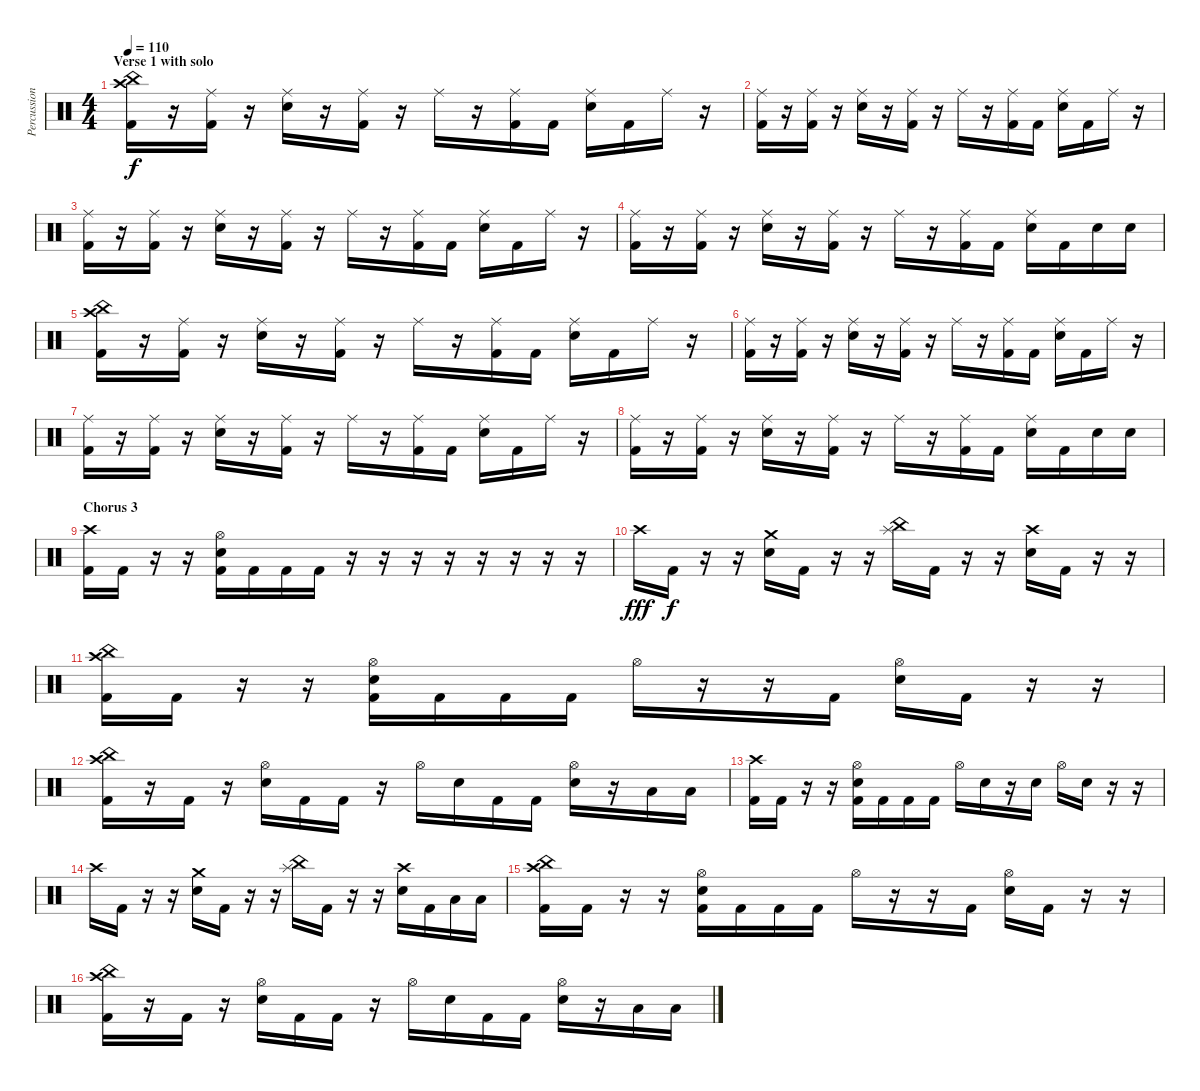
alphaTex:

\track ("Percussion" "Percussion") {instrument percussion}
\staff {score}
\articulation defaults
\ts (4 4)
\section ("" "Verse 1 with solo")
\tempo 110
\clef neutral
\ks c
("Crash high (hit)" "China (hit)" "Kick (hit) 2").16{dy f} r.16 ("Ride (middle)" "Kick (hit) 2").16 r.16 ("Ride (middle)" "Electric Snare (hit)").16 r.16 ("Ride (middle)" "Kick (hit) 2").16 r.16 "Ride (middle)".16 r.16 ("Ride (middle)" "Kick (hit) 2").16 "Kick (hit) 2".16 ("Ride (middle)" "Electric Snare (hit)").16 "Kick (hit) 2".16 "Ride (middle)".16 r.16 |
("Ride (middle)" "Kick (hit) 2").16 r.16 ("Ride (middle)" "Kick (hit) 2").16 r.16 ("Ride (middle)" "Electric Snare (hit)").16 r.16 ("Ride (middle)" "Kick (hit) 2").16 r.16 "Ride (middle)".16 r.16 ("Ride (middle)" "Kick (hit) 2").16 "Kick (hit) 2".16 ("Ride (middle)" "Electric Snare (hit)").16 "Kick (hit) 2".16 "Ride (middle)".16 r.16 |
("Ride (middle)" "Kick (hit) 2").16 r.16 ("Ride (middle)" "Kick (hit) 2").16 r.16 ("Ride (middle)" "Electric Snare (hit)").16 r.16 ("Ride (middle)" "Kick (hit) 2").16 r.16 "Ride (middle)".16 r.16 ("Ride (middle)" "Kick (hit) 2").16 "Kick (hit) 2".16 ("Ride (middle)" "Electric Snare (hit)").16 "Kick (hit) 2".16 "Ride (middle)".16 r.16 |
("Ride (middle)" "Kick (hit) 2").16 r.16 ("Ride (middle)" "Kick (hit) 2").16 r.16 ("Ride (middle)" "Electric Snare (hit)").16 r.16 ("Ride (middle)" "Kick (hit) 2").16 r.16 "Ride (middle)".16 r.16 ("Ride (middle)" "Kick (hit) 2").16 "Kick (hit) 2".16 ("Ride (middle)" "Electric Snare (hit)").16 "Kick (hit) 2".16 "Electric Snare (hit)".16 "Electric Snare (hit)".16 |
("Crash high (hit)" "China (hit)" "Kick (hit) 2").16 r.16 ("Ride (middle)" "Kick (hit) 2").16 r.16 ("Ride (middle)" "Electric Snare (hit)").16 r.16 ("Ride (middle)" "Kick (hit) 2").16 r.16 "Ride (middle)".16 r.16 ("Ride (middle)" "Kick (hit) 2").16 "Kick (hit) 2".16 ("Ride (middle)" "Electric Snare (hit)").16 "Kick (hit) 2".16 "Ride (middle)".16 r.16 |
("Ride (middle)" "Kick (hit) 2").16 r.16 ("Ride (middle)" "Kick (hit) 2").16 r.16 ("Ride (middle)" "Electric Snare (hit)").16 r.16 ("Ride (middle)" "Kick (hit) 2").16 r.16 "Ride (middle)".16 r.16 ("Ride (middle)" "Kick (hit) 2").16 "Kick (hit) 2".16 ("Ride (middle)" "Electric Snare (hit)").16 "Kick (hit) 2".16 "Ride (middle)".16 r.16 |
("Ride (middle)" "Kick (hit) 2").16 r.16 ("Ride (middle)" "Kick (hit) 2").16 r.16 ("Ride (middle)" "Electric Snare (hit)").16 r.16 ("Ride (middle)" "Kick (hit) 2").16 r.16 "Ride (middle)".16 r.16 ("Ride (middle)" "Kick (hit) 2").16 "Kick (hit) 2".16 ("Ride (middle)" "Electric Snare (hit)").16 "Kick (hit) 2".16 "Ride (middle)".16 r.16 |
("Ride (middle)" "Kick (hit) 2").16 r.16 ("Ride (middle)" "Kick (hit) 2").16 r.16 ("Ride (middle)" "Electric Snare (hit)").16 r.16 ("Ride (middle)" "Kick (hit) 2").16 r.16 "Ride (middle)".16 r.16 ("Ride (middle)" "Kick (hit) 2").16 "Kick (hit) 2".16 ("Ride (middle)" "Electric Snare (hit)").16 "Kick (hit) 2".16 "Electric Snare (hit)".16 "Electric Snare (hit)".16 |
\section ("" "Chorus 3")
("Crash high (hit)" "Kick (hit) 2").16 "Kick (hit) 2".16 r.16 r.16 ("Hi-Hat (open)" "Electric Snare (hit)" "Kick (hit) 2").16 "Kick (hit) 2".16 "Kick (hit) 2".16 "Kick (hit) 2".16 r.16 r.16 r.16 r.16 r.16 r.16 r.16 r.16 |
"Crash high (hit)".16{dy fff} "Kick (hit) 2".16{dy f} r.16 r.16 ("Crash medium (hit)" "Electric Snare (hit)").16 "Kick (hit) 2".16 r.16 r.16 ("Splash (hit)" "China (hit)").16 "Kick (hit) 2".16 r.16 r.16 ("Crash high (hit)" "Electric Snare (hit)").16 "Kick (hit) 2".16 r.16 r.16 |
("China (hit)" "Crash high (hit)" "Kick (hit) 2").16 "Kick (hit) 2".16 r.16 r.16 ("Hi-Hat (open)" "Electric Snare (hit)" "Kick (hit) 2").16 "Kick (hit) 2".16 "Kick (hit) 2".16 "Kick (hit) 2".16 "Hi-Hat (open)".16 r.16 r.16 "Kick (hit) 2".16 ("Hi-Hat (open)" "Electric Snare (hit)").16 "Kick (hit) 2".16 r.16 r.16 |
("China (hit)" "Crash high (hit)" "Kick (hit) 2").16 r.16 "Kick (hit) 2".16 r.16 ("Hi-Hat (open)" "Electric Snare (hit)").16 "Kick (hit) 2".16 "Kick (hit) 2".16 r.16 "Hi-Hat (open)".16 "Electric Snare (hit)".16 "Kick (hit) 2".16 "Kick (hit) 2".16 ("Hi-Hat (open)" "Electric Snare (hit)").16 r.16 "Low Tom (hit)".16 "Low Floor Tom (hit)".16 |
("Crash high (hit)" "Kick (hit) 2").16 "Kick (hit) 2".16 r.16 r.16 ("Hi-Hat (open)" "Electric Snare (hit)" "Kick (hit) 2").16 "Kick (hit) 2".16 "Kick (hit) 2".16 "Kick (hit) 2".16 "Hi-Hat (open)".16 "Electric Snare (hit)".16 r.16 "Electric Snare (hit)".16 "Hi-Hat (open)".16 "Electric Snare (hit)".16 r.16 r.16 |
"Crash high (hit)".16 "Kick (hit) 2".16 r.16 r.16 ("Crash medium (hit)" "Electric Snare (hit)").16 "Kick (hit) 2".16 r.16 r.16 ("Splash (hit)" "China (hit)").16 "Kick (hit) 2".16 r.16 r.16 ("Crash high (hit)" "Electric Snare (hit)").16 "Kick (hit) 2".16 "Low Tom (hit)".16 "Low Floor Tom (hit)".16 |
("China (hit)" "Crash high (hit)" "Kick (hit) 2").16 "Kick (hit) 2".16 r.16 r.16 ("Hi-Hat (open)" "Electric Snare (hit)" "Kick (hit) 2").16 "Kick (hit) 2".16 "Kick (hit) 2".16 "Kick (hit) 2".16 "Hi-Hat (open)".16 r.16 r.16 "Kick (hit) 2".16 ("Hi-Hat (open)" "Electric Snare (hit)").16 "Kick (hit) 2".16 r.16 r.16 |
("China (hit)" "Crash high (hit)" "Kick (hit) 2").16 r.16 "Kick (hit) 2".16 r.16 ("Hi-Hat (open)" "Electric Snare (hit)").16 "Kick (hit) 2".16 "Kick (hit) 2".16 r.16 "Hi-Hat (open)".16 "Electric Snare (hit)".16 "Kick (hit) 2".16 "Kick (hit) 2".16 ("Hi-Hat (open)" "Electric Snare (hit)").16 r.16 "Low Tom (hit)".16 "Low Floor Tom (hit)".16
